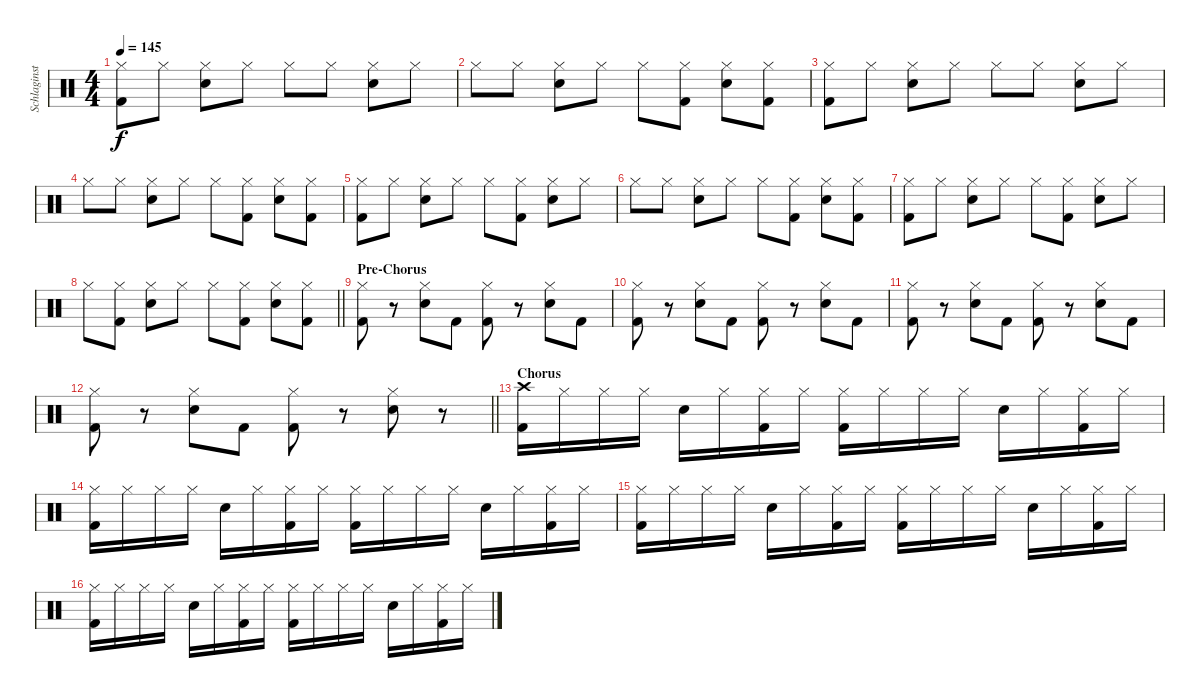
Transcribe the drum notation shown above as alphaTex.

\track ("Schlaginstrumente - Auswahl" "Schlaginst") {instrument percussion}
\staff {score}
\articulation defaults
\ts (4 4)
\tempo 145
\clef neutral
\ks c
("Hi-Hat (closed)" "Kick (hit) 2").8{dy f} "Hi-Hat (closed)".8 ("Hi-Hat (closed)" "Electric Snare (hit)").8 "Hi-Hat (closed)".8 "Hi-Hat (closed)".8 "Hi-Hat (closed)".8 ("Hi-Hat (closed)" "Electric Snare (hit)").8 "Hi-Hat (closed)".8 |
"Hi-Hat (closed)".8 "Hi-Hat (closed)".8 ("Hi-Hat (closed)" "Electric Snare (hit)").8 "Hi-Hat (closed)".8 "Hi-Hat (closed)".8 ("Hi-Hat (closed)" "Kick (hit) 2").8 ("Hi-Hat (closed)" "Electric Snare (hit)").8 ("Hi-Hat (closed)" "Kick (hit) 2").8 |
("Hi-Hat (closed)" "Kick (hit) 2").8 "Hi-Hat (closed)".8 ("Hi-Hat (closed)" "Electric Snare (hit)").8 "Hi-Hat (closed)".8 "Hi-Hat (closed)".8 "Hi-Hat (closed)".8 ("Hi-Hat (closed)" "Electric Snare (hit)").8 "Hi-Hat (closed)".8 |
"Hi-Hat (closed)".8 "Hi-Hat (closed)".8 ("Hi-Hat (closed)" "Electric Snare (hit)").8 "Hi-Hat (closed)".8 "Hi-Hat (closed)".8 ("Hi-Hat (closed)" "Kick (hit) 2").8 ("Hi-Hat (closed)" "Electric Snare (hit)").8 ("Hi-Hat (closed)" "Kick (hit) 2").8 |
("Hi-Hat (closed)" "Kick (hit) 2").8 "Hi-Hat (closed)".8 ("Hi-Hat (closed)" "Electric Snare (hit)").8 "Hi-Hat (closed)".8 "Hi-Hat (closed)".8 ("Hi-Hat (closed)" "Kick (hit) 2").8 ("Hi-Hat (closed)" "Electric Snare (hit)").8 "Hi-Hat (closed)".8 |
"Hi-Hat (closed)".8 "Hi-Hat (closed)".8 ("Hi-Hat (closed)" "Electric Snare (hit)").8 "Hi-Hat (closed)".8 "Hi-Hat (closed)".8 ("Hi-Hat (closed)" "Kick (hit) 2").8 ("Hi-Hat (closed)" "Electric Snare (hit)").8 ("Hi-Hat (closed)" "Kick (hit) 2").8 |
("Hi-Hat (closed)" "Kick (hit) 2").8 "Hi-Hat (closed)".8 ("Hi-Hat (closed)" "Electric Snare (hit)").8 "Hi-Hat (closed)".8 "Hi-Hat (closed)".8 ("Hi-Hat (closed)" "Kick (hit) 2").8 ("Hi-Hat (closed)" "Electric Snare (hit)").8 "Hi-Hat (closed)".8 |
\barLineRight lightlight "Hi-Hat (closed)".8
("Hi-Hat (closed)" "Kick (hit) 2").8 ("Hi-Hat (closed)" "Electric Snare (hit)").8 "Hi-Hat (closed)".8 "Hi-Hat (closed)".8 ("Hi-Hat (closed)" "Kick (hit) 2").8 ("Hi-Hat (closed)" "Electric Snare (hit)").8 ("Hi-Hat (closed)" "Kick (hit) 2").8 |
\section ("" "Pre-Chorus")
("Hi-Hat (closed)" "Kick (hit) 2").8 r.8 ("Hi-Hat (closed)" "Electric Snare (hit)").8 "Kick (hit) 2".8 ("Hi-Hat (closed)" "Kick (hit) 2").8 r.8 ("Hi-Hat (closed)" "Electric Snare (hit)").8 "Kick (hit) 2".8 |
("Hi-Hat (closed)" "Kick (hit) 2").8 r.8 ("Hi-Hat (closed)" "Electric Snare (hit)").8 "Kick (hit) 2".8 ("Hi-Hat (closed)" "Kick (hit) 2").8 r.8 ("Hi-Hat (closed)" "Electric Snare (hit)").8 "Kick (hit) 2".8 |
("Hi-Hat (closed)" "Kick (hit) 2").8 r.8 ("Hi-Hat (closed)" "Electric Snare (hit)").8 "Kick (hit) 2".8 ("Hi-Hat (closed)" "Kick (hit) 2").8 r.8 ("Hi-Hat (closed)" "Electric Snare (hit)").8 "Kick (hit) 2".8 |
\barLineRight lightlight
("Hi-Hat (closed)" "Kick (hit) 2").8 r.8 ("Hi-Hat (closed)" "Electric Snare (hit)").8 "Kick (hit) 2".8 ("Hi-Hat (closed)" "Kick (hit) 2").8 r.8 ("Hi-Hat (closed)" "Electric Snare (hit)").8 r.8 |
\section ("" "Chorus")
("Crash high (hit)" "Kick (hit) 2").16 "Hi-Hat (closed)".16 "Hi-Hat (closed)".16 "Hi-Hat (closed)".16 "Electric Snare (hit)".16 "Hi-Hat (closed)".16 ("Hi-Hat (closed)" "Kick (hit) 2").16 "Hi-Hat (closed)".16 ("Hi-Hat (closed)" "Kick (hit) 2").16 "Hi-Hat (closed)".16 "Hi-Hat (closed)".16 "Hi-Hat (closed)".16 "Electric Snare (hit)".16 "Hi-Hat (closed)".16 ("Hi-Hat (closed)" "Kick (hit) 2").16 "Hi-Hat (closed)".16 |
("Hi-Hat (closed)" "Kick (hit) 2").16 "Hi-Hat (closed)".16 "Hi-Hat (closed)".16 "Hi-Hat (closed)".16 "Electric Snare (hit)".16 "Hi-Hat (closed)".16 ("Hi-Hat (closed)" "Kick (hit) 2").16 "Hi-Hat (closed)".16 ("Hi-Hat (closed)" "Kick (hit) 2").16 "Hi-Hat (closed)".16 "Hi-Hat (closed)".16 "Hi-Hat (closed)".16 "Electric Snare (hit)".16 "Hi-Hat (closed)".16 ("Hi-Hat (closed)" "Kick (hit) 2").16 "Hi-Hat (closed)".16 |
("Hi-Hat (closed)" "Kick (hit) 2").16 "Hi-Hat (closed)".16 "Hi-Hat (closed)".16 "Hi-Hat (closed)".16 "Electric Snare (hit)".16 "Hi-Hat (closed)".16 ("Hi-Hat (closed)" "Kick (hit) 2").16 "Hi-Hat (closed)".16 ("Hi-Hat (closed)" "Kick (hit) 2").16 "Hi-Hat (closed)".16 "Hi-Hat (closed)".16 "Hi-Hat (closed)".16 "Electric Snare (hit)".16 "Hi-Hat (closed)".16 ("Hi-Hat (closed)" "Kick (hit) 2").16 "Hi-Hat (closed)".16 |
("Hi-Hat (closed)" "Kick (hit) 2").16 "Hi-Hat (closed)".16 "Hi-Hat (closed)".16 "Hi-Hat (closed)".16 "Electric Snare (hit)".16 "Hi-Hat (closed)".16 ("Hi-Hat (closed)" "Kick (hit) 2").16 "Hi-Hat (closed)".16 ("Hi-Hat (closed)" "Kick (hit) 2").16 "Hi-Hat (closed)".16 "Hi-Hat (closed)".16 "Hi-Hat (closed)".16 "Electric Snare (hit)".16 "Hi-Hat (closed)".16 ("Hi-Hat (closed)" "Kick (hit) 2").16 "Hi-Hat (closed)".16
